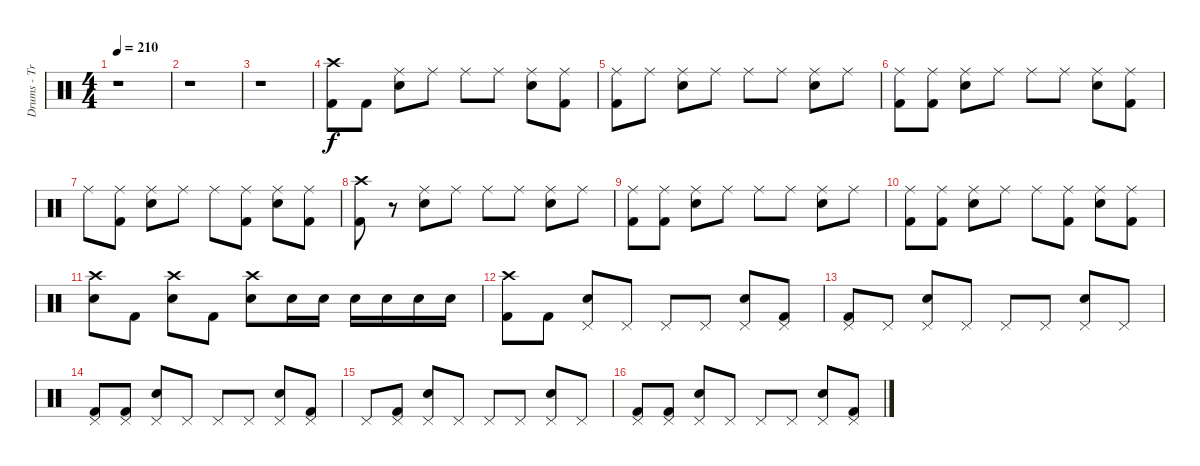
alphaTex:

\track ("Drums - Travis Barker" "Drums - Tr") {instrument percussion}
\staff {score}
\articulation defaults
\ts (4 4)
\tempo 210
\clef neutral
\ks c
r.1{dy f} |
r.1 |
r.1 |
("Crash high (hit)" "Kick (hit) 2").8 "Kick (hit) 2".8 ("Ride (middle)" "Electric Snare (hit)").8 "Ride (middle)".8 "Ride (middle)".8 "Ride (middle)".8 ("Ride (middle)" "Electric Snare (hit)").8 ("Ride (middle)" "Kick (hit) 2").8 |
("Ride (middle)" "Kick (hit) 2").8 "Ride (middle)".8 ("Ride (middle)" "Electric Snare (hit)").8 "Ride (middle)".8 "Ride (middle)".8 "Ride (middle)".8 ("Ride (middle)" "Electric Snare (hit)").8 "Ride (middle)".8 |
("Ride (middle)" "Kick (hit) 2").8 ("Ride (middle)" "Kick (hit) 2").8 ("Ride (middle)" "Electric Snare (hit)").8 "Ride (middle)".8 "Ride (middle)".8 "Ride (middle)".8 ("Ride (middle)" "Electric Snare (hit)").8 ("Ride (middle)" "Kick (hit) 2").8 |
"Ride (middle)".8 ("Ride (middle)" "Kick (hit) 2").8 ("Ride (middle)" "Electric Snare (hit)").8 "Ride (middle)".8 "Ride (middle)".8 ("Ride (middle)" "Kick (hit) 2").8 ("Ride (middle)" "Electric Snare (hit)").8 ("Ride (middle)" "Kick (hit) 2").8 |
("Crash high (hit)" "Kick (hit) 2").8 r.8 ("Ride (middle)" "Electric Snare (hit)").8 "Ride (middle)".8 "Ride (middle)".8 "Ride (middle)".8 ("Ride (middle)" "Electric Snare (hit)").8 "Ride (middle)".8 |
("Ride (middle)" "Kick (hit) 2").8 ("Ride (middle)" "Kick (hit) 2").8 ("Ride (middle)" "Electric Snare (hit)").8 "Ride (middle)".8 "Ride (middle)".8 "Ride (middle)".8 ("Ride (middle)" "Electric Snare (hit)").8 "Ride (middle)".8 |
("Ride (middle)" "Kick (hit) 2").8 ("Ride (middle)" "Kick (hit) 2").8 ("Ride (middle)" "Electric Snare (hit)").8 "Ride (middle)".8 "Ride (middle)".8 ("Ride (middle)" "Kick (hit) 2").8 ("Ride (middle)" "Electric Snare (hit)").8 ("Ride (middle)" "Kick (hit) 2").8 |
("Crash high (hit)" "Electric Snare (hit)").8 "Kick (hit) 2".8 ("Crash high (hit)" "Electric Snare (hit)").8 "Kick (hit) 2".8 ("Crash high (hit)" "Electric Snare (hit)").8 "Electric Snare (hit)".16 "Electric Snare (hit)".16 "Electric Snare (hit)".16 "Electric Snare (hit)".16 "Electric Snare (hit)".16 "Electric Snare (hit)".16 |
("Crash high (hit)" "Kick (hit) 2").8 "Kick (hit) 2".8 ("Pedal Hi-Hat (hit)" "Electric Snare (hit)").8 "Pedal Hi-Hat (hit)".8 "Pedal Hi-Hat (hit)".8 "Pedal Hi-Hat (hit)".8 ("Pedal Hi-Hat (hit)" "Electric Snare (hit)").8 ("Pedal Hi-Hat (hit)" "Kick (hit) 2").8 |
("Pedal Hi-Hat (hit)" "Kick (hit) 2").8 "Pedal Hi-Hat (hit)".8 ("Pedal Hi-Hat (hit)" "Electric Snare (hit)").8 "Pedal Hi-Hat (hit)".8 "Pedal Hi-Hat (hit)".8 "Pedal Hi-Hat (hit)".8 ("Pedal Hi-Hat (hit)" "Electric Snare (hit)").8 "Pedal Hi-Hat (hit)".8 |
("Pedal Hi-Hat (hit)" "Kick (hit) 2").8 ("Pedal Hi-Hat (hit)" "Kick (hit) 2").8 ("Pedal Hi-Hat (hit)" "Electric Snare (hit)").8 "Pedal Hi-Hat (hit)".8 "Pedal Hi-Hat (hit)".8 "Pedal Hi-Hat (hit)".8 ("Pedal Hi-Hat (hit)" "Electric Snare (hit)").8 ("Pedal Hi-Hat (hit)" "Kick (hit) 2").8 |
"Pedal Hi-Hat (hit)".8 ("Pedal Hi-Hat (hit)" "Kick (hit) 2").8 ("Pedal Hi-Hat (hit)" "Electric Snare (hit)").8 "Pedal Hi-Hat (hit)".8 "Pedal Hi-Hat (hit)".8 "Pedal Hi-Hat (hit)".8 ("Pedal Hi-Hat (hit)" "Electric Snare (hit)").8 "Pedal Hi-Hat (hit)".8 |
("Pedal Hi-Hat (hit)" "Kick (hit) 2").8 ("Pedal Hi-Hat (hit)" "Kick (hit) 2").8 ("Pedal Hi-Hat (hit)" "Electric Snare (hit)").8 "Pedal Hi-Hat (hit)".8 "Pedal Hi-Hat (hit)".8 "Pedal Hi-Hat (hit)".8 ("Pedal Hi-Hat (hit)" "Electric Snare (hit)").8 ("Pedal Hi-Hat (hit)" "Kick (hit) 2").8
